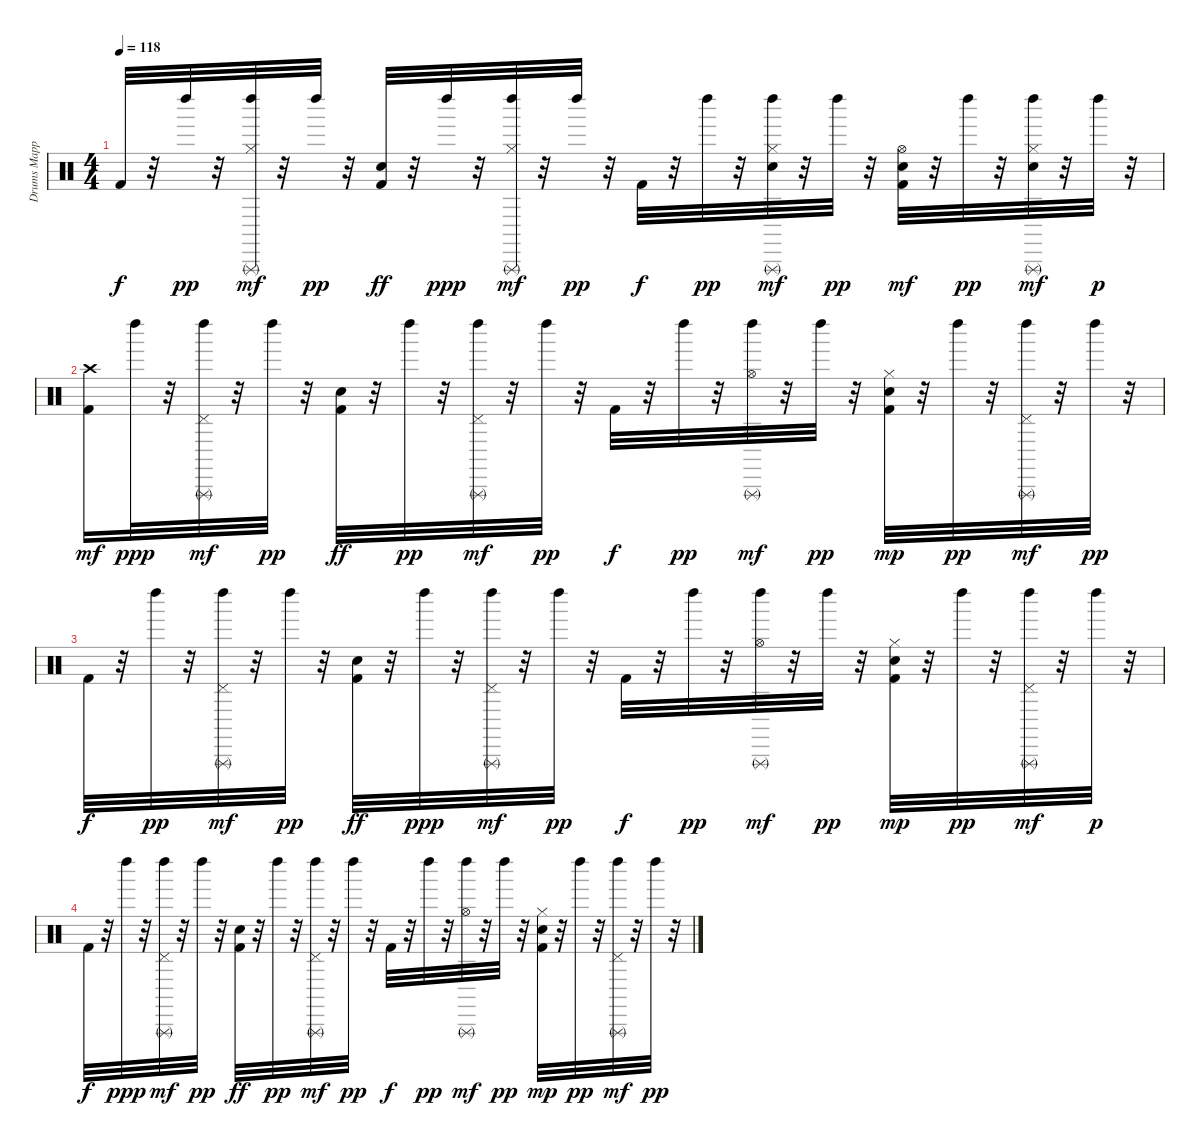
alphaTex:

\track ("Drums Mapped*merged" "Drums Mapp") {instrument percussion}
\staff {score}
\articulation defaults
\ts (4 4)
\tempo 118
\clef neutral
\ks c "Kick (hit) 2".32{dy f}
r.32 "Left Maraca (hit)".32{dy pp} r.32 ("Hi-Hat (closed)" "Left Maraca (hit)" "Triangle (rnute)").32{dy mf} r.32 "Left Maraca (hit)".32{dy pp} r.32 ("Kick (hit) 2" "Snare (hit) 2").32{dy ff} r.32 "Left Maraca (hit)".32{dy ppp} r.32 ("Hi-Hat (closed)" "Left Maraca (hit)" "Triangle (rnute)").32{dy mf} r.32 "Left Maraca (hit)".32{dy pp} r.32 "Kick (hit) 2".32{dy f} r.32 "Left Maraca (hit)".32{dy pp} r.32 ("Snare (hit) 2" "Hi-Hat (closed)" "Left Maraca (hit)" "Triangle (rnute)").32{dy mf} r.32 "Left Maraca (hit)".32{dy pp} r.32 ("Kick (hit) 2" "Snare (hit) 2" "Hi-Hat (open)").32{dy mf} r.32 "Left Maraca (hit)".32{dy pp} r.32 ("Snare (hit) 2" "Hi-Hat (closed)" "Left Maraca (hit)" "Triangle (rnute)").32{dy mf} r.32 "Left Maraca (hit)".32{dy p} r.32 |
("Kick (hit) 2" "Crash high (hit)").16{dy mf} "Left Maraca (hit)".32{dy ppp} r.32 ("Pedal Hi-Hat (hit)" "Left Maraca (hit)" "Triangle (rnute)").32{dy mf} r.32 "Left Maraca (hit)".32{dy pp} r.32 ("Kick (hit) 2" "Snare (hit) 2").32{dy ff} r.32 "Left Maraca (hit)".32{dy pp} r.32 ("Pedal Hi-Hat (hit)" "Left Maraca (hit)" "Triangle (rnute)").32{dy mf} r.32 "Left Maraca (hit)".32{dy pp} r.32 "Kick (hit) 2".32{dy f} r.32 "Left Maraca (hit)".32{dy pp} r.32 ("Hi-Hat (open)" "Left Maraca (hit)" "Triangle (rnute)").32{dy mf} r.32 "Left Maraca (hit)".32{dy pp} r.32 ("Kick (hit) 2" "Snare (hit) 2" "Hi-Hat (closed)").32{dy mp} r.32 "Left Maraca (hit)".32{dy pp} r.32 ("Pedal Hi-Hat (hit)" "Left Maraca (hit)" "Triangle (rnute)").32{dy mf} r.32 "Left Maraca (hit)".32{dy pp} r.32 |
"Kick (hit) 2".32{dy f} r.32 "Left Maraca (hit)".32{dy pp} r.32 ("Pedal Hi-Hat (hit)" "Left Maraca (hit)" "Triangle (rnute)").32{dy mf} r.32 "Left Maraca (hit)".32{dy pp} r.32 ("Kick (hit) 2" "Snare (hit) 2").32{dy ff} r.32 "Left Maraca (hit)".32{dy ppp} r.32 ("Pedal Hi-Hat (hit)" "Left Maraca (hit)" "Triangle (rnute)").32{dy mf} r.32 "Left Maraca (hit)".32{dy pp} r.32 "Kick (hit) 2".32{dy f} r.32 "Left Maraca (hit)".32{dy pp} r.32 ("Hi-Hat (open)" "Left Maraca (hit)" "Triangle (rnute)").32{dy mf} r.32 "Left Maraca (hit)".32{dy pp} r.32 ("Kick (hit) 2" "Snare (hit) 2" "Hi-Hat (closed)").32{dy mp} r.32 "Left Maraca (hit)".32{dy pp} r.32 ("Pedal Hi-Hat (hit)" "Left Maraca (hit)" "Triangle (rnute)").32{dy mf} r.32 "Left Maraca (hit)".32{dy p} r.32 |
"Kick (hit) 2".32{dy f} r.32 "Left Maraca (hit)".32{dy ppp} r.32 ("Pedal Hi-Hat (hit)" "Left Maraca (hit)" "Triangle (rnute)").32{dy mf} r.32 "Left Maraca (hit)".32{dy pp} r.32 ("Kick (hit) 2" "Snare (hit) 2").32{dy ff} r.32 "Left Maraca (hit)".32{dy pp} r.32 ("Pedal Hi-Hat (hit)" "Left Maraca (hit)" "Triangle (rnute)").32{dy mf} r.32 "Left Maraca (hit)".32{dy pp} r.32 "Kick (hit) 2".32{dy f} r.32 "Left Maraca (hit)".32{dy pp} r.32 ("Hi-Hat (open)" "Left Maraca (hit)" "Triangle (rnute)").32{dy mf} r.32 "Left Maraca (hit)".32{dy pp} r.32 ("Kick (hit) 2" "Snare (hit) 2" "Hi-Hat (closed)").32{dy mp} r.32 "Left Maraca (hit)".32{dy pp} r.32 ("Pedal Hi-Hat (hit)" "Left Maraca (hit)" "Triangle (rnute)").32{dy mf} r.32 "Left Maraca (hit)".32{dy pp} r.32
